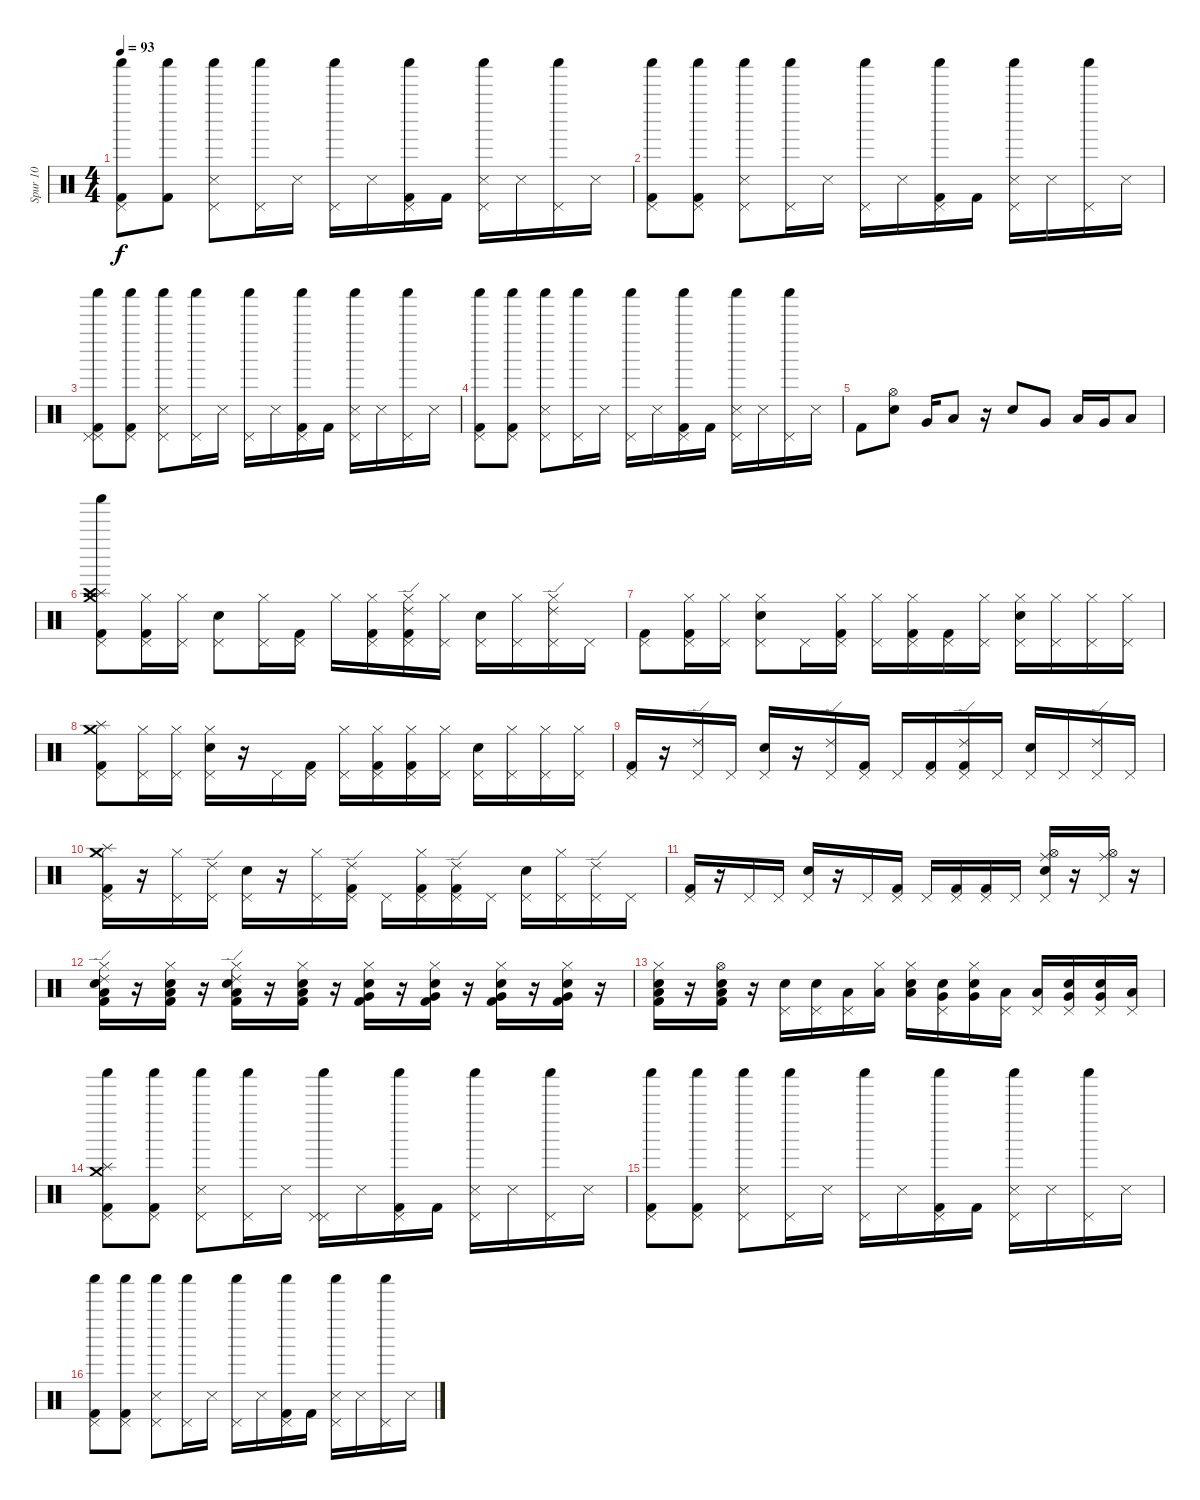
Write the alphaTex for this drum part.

\track ("Spur 10" "Spur 10") {instrument percussion}
\staff {score}
\articulation defaults
\ts (4 4)
\tempo 93
\clef neutral
\ks c
("Shaker (hit)" "Pedal Hi-Hat (hit)" "Kick (hit) 2").8{dy f} ("Shaker (hit)" "Kick (hit) 2").8 ("Shaker (hit)" "Pedal Hi-Hat (hit)" "Snare (side stick) 3").8 ("Shaker (hit)" "Pedal Hi-Hat (hit)").16 "Snare (side stick) 3".16 ("Shaker (hit)" "Pedal Hi-Hat (hit)").16 "Snare (side stick) 3".16 ("Shaker (hit)" "Pedal Hi-Hat (hit)" "Kick (hit) 2").16 "Kick (hit) 2".16 ("Shaker (hit)" "Pedal Hi-Hat (hit)" "Snare (side stick) 3").16 "Snare (side stick) 3".16 ("Shaker (hit)" "Pedal Hi-Hat (hit)").16 "Snare (side stick) 3".16 |
("Shaker (hit)" "Pedal Hi-Hat (hit)" "Kick (hit) 2").8 ("Shaker (hit)" "Pedal Hi-Hat (hit)" "Kick (hit) 2").8 ("Shaker (hit)" "Pedal Hi-Hat (hit)" "Snare (side stick) 3").8 ("Shaker (hit)" "Pedal Hi-Hat (hit)").16 "Snare (side stick) 3".16 ("Shaker (hit)" "Pedal Hi-Hat (hit)").16 "Snare (side stick) 3".16 ("Shaker (hit)" "Pedal Hi-Hat (hit)" "Kick (hit) 2").16 "Kick (hit) 2".16 ("Shaker (hit)" "Pedal Hi-Hat (hit)" "Snare (side stick) 3").16 "Snare (side stick) 3".16 ("Shaker (hit)" "Pedal Hi-Hat (hit)").16 "Snare (side stick) 3".16 |
("Shaker (hit)" "Pedal Hi-Hat (hit)" "Kick (hit) 2" "Pedal Hi-Hat (hit)").8 ("Shaker (hit)" "Pedal Hi-Hat (hit)" "Kick (hit) 2").8 ("Shaker (hit)" "Pedal Hi-Hat (hit)" "Snare (side stick) 3").8 ("Shaker (hit)" "Pedal Hi-Hat (hit)").16 "Snare (side stick) 3".16 ("Shaker (hit)" "Pedal Hi-Hat (hit)").16 "Snare (side stick) 3".16 ("Shaker (hit)" "Pedal Hi-Hat (hit)" "Kick (hit) 2").16 "Kick (hit) 2".16 ("Shaker (hit)" "Pedal Hi-Hat (hit)" "Snare (side stick) 3").16 "Snare (side stick) 3".16 ("Shaker (hit)" "Pedal Hi-Hat (hit)").16 "Snare (side stick) 3".16 |
("Shaker (hit)" "Pedal Hi-Hat (hit)" "Kick (hit) 2").8 ("Shaker (hit)" "Pedal Hi-Hat (hit)" "Kick (hit) 2").8 ("Shaker (hit)" "Pedal Hi-Hat (hit)" "Snare (side stick) 3").8 ("Shaker (hit)" "Pedal Hi-Hat (hit)").16 "Snare (side stick) 3".16 ("Shaker (hit)" "Pedal Hi-Hat (hit)").16 "Snare (side stick) 3".16 ("Shaker (hit)" "Pedal Hi-Hat (hit)" "Kick (hit) 2").16 "Kick (hit) 2".16 ("Shaker (hit)" "Pedal Hi-Hat (hit)" "Snare (side stick) 3").16 "Snare (side stick) 3".16 ("Shaker (hit)" "Pedal Hi-Hat (hit)").16 "Snare (side stick) 3".16 |
"Kick (hit) 2".8 ("Hi-Hat (open)" "Electric Snare (hit)").8 "Very Low Tom (hit)".16 "Low Tom (hit)".8 r.16 "Snare (hit) 2".8 "Very Low Tom (hit)".8 "Low Floor Tom (hit)".16 "Very Low Tom (hit)".16 "Low Tom (hit)".8 |
("Splash (hit)" "Crash high (hit)" "Pedal Hi-Hat (hit)" "Crash medium (hit)" "Kick (hit) 2" "Shaker (hit)").8 ("Hi-Hat (closed)" "Kick (hit) 2" "Pedal Hi-Hat (hit)").16 ("Hi-Hat (closed)" "Pedal Hi-Hat (hit)").16 ("Pedal Hi-Hat (hit)" "Electric Snare (hit)").8 ("Pedal Hi-Hat (hit)" "Hi-Hat (closed)").16 ("Pedal Hi-Hat (hit)" "Kick (hit) 2").16 "Hi-Hat (closed)".16 ("Hi-Hat (closed)" "Pedal Hi-Hat (hit)" "Kick (hit) 2").16 ("Hi-Hat (closed)" "Pedal Hi-Hat (hit)" "Kick (hit) 2" "Ride (edge) 2").16 ("Hi-Hat (closed)" "Pedal Hi-Hat (hit)").16 ("Pedal Hi-Hat (hit)" "Electric Snare (hit)").16 ("Hi-Hat (closed)" "Pedal Hi-Hat (hit)").16 ("Hi-Hat (closed)" "Pedal Hi-Hat (hit)" "Ride (edge) 2").16 "Pedal Hi-Hat (hit)".16 |
("Pedal Hi-Hat (hit)" "Kick (hit) 2").8 ("Hi-Hat (closed)" "Kick (hit) 2" "Pedal Hi-Hat (hit)").16 ("Hi-Hat (closed)" "Pedal Hi-Hat (hit)").16 ("Hi-Hat (closed)" "Pedal Hi-Hat (hit)" "Electric Snare (hit)").8 "Pedal Hi-Hat (hit)".16 ("Hi-Hat (closed)" "Pedal Hi-Hat (hit)" "Kick (hit) 2").16 ("Hi-Hat (closed)" "Pedal Hi-Hat (hit)").16 ("Hi-Hat (closed)" "Pedal Hi-Hat (hit)" "Kick (hit) 2").16 ("Kick (hit) 2" "Pedal Hi-Hat (hit)").16 ("Hi-Hat (closed)" "Pedal Hi-Hat (hit)").16 ("Hi-Hat (closed)" "Electric Snare (hit)" "Pedal Hi-Hat (hit)").16 ("Hi-Hat (closed)" "Pedal Hi-Hat (hit)").16 ("Hi-Hat (closed)" "Pedal Hi-Hat (hit)").16 ("Hi-Hat (closed)" "Pedal Hi-Hat (hit)").16 |
("Splash (hit)" "Crash medium (hit)" "Pedal Hi-Hat (hit)" "Kick (hit) 2").8 ("Hi-Hat (closed)" "Pedal Hi-Hat (hit)").16 ("Hi-Hat (closed)" "Pedal Hi-Hat (hit)").16 ("Hi-Hat (closed)" "Electric Snare (hit)" "Pedal Hi-Hat (hit)").16 r.16 "Pedal Hi-Hat (hit)".16 ("Pedal Hi-Hat (hit)" "Kick (hit) 2").16 ("Hi-Hat (closed)" "Pedal Hi-Hat (hit)").16 ("Hi-Hat (closed)" "Pedal Hi-Hat (hit)" "Kick (hit) 2").16 ("Hi-Hat (closed)" "Kick (hit) 2" "Pedal Hi-Hat (hit)").16 ("Hi-Hat (closed)" "Pedal Hi-Hat (hit)").16 ("Electric Snare (hit)" "Pedal Hi-Hat (hit)").16 ("Hi-Hat (closed)" "Pedal Hi-Hat (hit)").16 ("Hi-Hat (closed)" "Pedal Hi-Hat (hit)").16 ("Hi-Hat (closed)" "Pedal Hi-Hat (hit)").16 |
("Kick (hit) 2" "Pedal Hi-Hat (hit)").16 r.16 ("Ride (edge) 2" "Pedal Hi-Hat (hit)").16 "Pedal Hi-Hat (hit)".16 ("Electric Snare (hit)" "Pedal Hi-Hat (hit)").16 r.16 ("Ride (edge) 2" "Pedal Hi-Hat (hit)").16 ("Pedal Hi-Hat (hit)" "Kick (hit) 2").16 "Pedal Hi-Hat (hit)".16 ("Pedal Hi-Hat (hit)" "Kick (hit) 2").16 ("Ride (edge) 2" "Kick (hit) 2" "Pedal Hi-Hat (hit)").16 "Pedal Hi-Hat (hit)".16 ("Electric Snare (hit)" "Pedal Hi-Hat (hit)").16 "Pedal Hi-Hat (hit)".16 ("Ride (edge) 2" "Pedal Hi-Hat (hit)").16 "Pedal Hi-Hat (hit)".16 |
("Splash (hit)" "Kick (hit) 2" "Crash medium (hit)" "Pedal Hi-Hat (hit)").16 r.16 ("Hi-Hat (closed)" "Pedal Hi-Hat (hit)").16 ("Ride (edge) 2" "Pedal Hi-Hat (hit)").16 ("Electric Snare (hit)" "Pedal Hi-Hat (hit)").16 r.16 ("Hi-Hat (closed)" "Pedal Hi-Hat (hit)").16 ("Ride (edge) 2" "Pedal Hi-Hat (hit)" "Kick (hit) 2").16{volume 12} "Pedal Hi-Hat (hit)".16 ("Hi-Hat (closed)" "Pedal Hi-Hat (hit)" "Kick (hit) 2").16 ("Ride (edge) 2" "Kick (hit) 2" "Pedal Hi-Hat (hit)").16 "Pedal Hi-Hat (hit)".16 ("Electric Snare (hit)" "Pedal Hi-Hat (hit)").16 ("Hi-Hat (closed)" "Pedal Hi-Hat (hit)").16 ("Ride (edge) 2" "Pedal Hi-Hat (hit)").16 "Pedal Hi-Hat (hit)".16 |
("Kick (hit) 2" "Pedal Hi-Hat (hit)").16 r.16 "Pedal Hi-Hat (hit)".16 "Pedal Hi-Hat (hit)".16 ("Electric Snare (hit)" "Pedal Hi-Hat (hit)").16 r.16 "Pedal Hi-Hat (hit)".16 ("Pedal Hi-Hat (hit)" "Kick (hit) 2").16 "Pedal Hi-Hat (hit)".16 ("Pedal Hi-Hat (hit)" "Kick (hit) 2").16 ("Kick (hit) 2" "Pedal Hi-Hat (hit)").16 "Pedal Hi-Hat (hit)".16 ("Hi-Hat (open)" "Ride (middle)" "Electric Snare (hit)" "Pedal Hi-Hat (hit)").16 r.16 ("Hi-Hat (open)" "Ride (middle)" "Pedal Hi-Hat (hit)").16 r.16 |
("Ride (edge) 2" "Hi-Hat (closed)" "Low Floor Tom (hit)" "Kick (hit) 2" "Electric Snare (hit)").16 r.16 ("Hi-Hat (closed)" "Low Floor Tom (hit)" "Kick (hit) 2" "Electric Snare (hit)").16{volume 12} r.16 ("Ride (edge) 2" "Hi-Hat (closed)" "Low Floor Tom (hit)" "Kick (hit) 2" "Electric Snare (hit)").16 r.16 ("Hi-Hat (closed)" "Kick (hit) 2" "Low Floor Tom (hit)" "Electric Snare (hit)").16 r.16 ("Hi-Hat (closed)" "Very Low Tom (hit)" "Kick (hit) 2" "Electric Snare (hit)").16 r.16 ("Hi-Hat (closed)" "Very Low Tom (hit)" "Kick (hit) 2" "Electric Snare (hit)").16 r.16 ("Hi-Hat (closed)" "Very Low Tom (hit)" "Kick (hit) 2" "Electric Snare (hit)").16 r.16 ("Hi-Hat (closed)" "Very Low Tom (hit)" "Kick (hit) 2" "Electric Snare (hit)").16 r.16 |
("Hi-Hat (closed)" "Low Tom (hit)" "Kick (hit) 2" "Electric Snare (hit)").16 r.16 ("Hi-Hat (open)" "Kick (hit) 2" "Low Tom (hit)" "Electric Snare (hit)").16 r.16 ("Pedal Hi-Hat (hit)" "Snare (hit) 2").16 ("Pedal Hi-Hat (hit)" "Electric Snare (hit)").16 ("Pedal Hi-Hat (hit)" "Low Tom (hit)").16 ("Hi-Hat (closed)" "Low Floor Tom (hit)").16 ("Low Tom (hit)" "Hi-Hat (closed)" "Snare (hit) 2").16 ("Electric Snare (hit)" "Pedal Hi-Hat (hit)" "Very Low Tom (hit)").16 ("Snare (hit) 2" "Hi-Hat (closed)" "Very Low Tom (hit)").16 ("Pedal Hi-Hat (hit)" "Low Floor Tom (hit)").16 ("Pedal Hi-Hat (hit)" "Low Tom (hit)").16 ("Electric Snare (hit)" "Pedal Hi-Hat (hit)" "Very Low Tom (hit)").16 ("Snare (hit) 2" "Pedal Hi-Hat (hit)" "Very Low Tom (hit)").16 ("Pedal Hi-Hat (hit)" "Low Floor Tom (hit)").16 |
("Crash medium (hit)" "Shaker (hit)" "Kick (hit) 2" "Pedal Hi-Hat (hit)" "Splash (hit)").8 ("Shaker (hit)" "Kick (hit) 2" "Pedal Hi-Hat (hit)").8 ("Shaker (hit)" "Pedal Hi-Hat (hit)" "Snare (side stick) 3").8 ("Shaker (hit)" "Pedal Hi-Hat (hit)").16 "Snare (side stick) 3".16 ("Shaker (hit)" "Pedal Hi-Hat (hit)" "Pedal Hi-Hat (hit)").16 "Snare (side stick) 3".16 ("Shaker (hit)" "Pedal Hi-Hat (hit)" "Kick (hit) 2").16 "Kick (hit) 2".16 ("Shaker (hit)" "Pedal Hi-Hat (hit)" "Snare (side stick) 3").16 "Snare (side stick) 3".16 ("Shaker (hit)" "Pedal Hi-Hat (hit)").16 "Snare (side stick) 3".16 |
("Shaker (hit)" "Pedal Hi-Hat (hit)" "Kick (hit) 2").8 ("Shaker (hit)" "Pedal Hi-Hat (hit)" "Kick (hit) 2").8 ("Shaker (hit)" "Pedal Hi-Hat (hit)" "Snare (side stick) 3").8 ("Shaker (hit)" "Pedal Hi-Hat (hit)").16 "Snare (side stick) 3".16 ("Shaker (hit)" "Pedal Hi-Hat (hit)").16 "Snare (side stick) 3".16 ("Shaker (hit)" "Pedal Hi-Hat (hit)" "Kick (hit) 2").16 "Kick (hit) 2".16 ("Shaker (hit)" "Pedal Hi-Hat (hit)" "Snare (side stick) 3").16 "Snare (side stick) 3".16 ("Shaker (hit)" "Pedal Hi-Hat (hit)").16 "Snare (side stick) 3".16 |
("Shaker (hit)" "Pedal Hi-Hat (hit)" "Kick (hit) 2").8 ("Shaker (hit)" "Pedal Hi-Hat (hit)" "Kick (hit) 2").8 ("Snare (side stick) 3" "Shaker (hit)" "Pedal Hi-Hat (hit)").8 ("Shaker (hit)" "Pedal Hi-Hat (hit)").16 "Snare (side stick) 3".16 ("Shaker (hit)" "Pedal Hi-Hat (hit)").16 "Snare (side stick) 3".16 ("Shaker (hit)" "Pedal Hi-Hat (hit)" "Kick (hit) 2").16 "Kick (hit) 2".16 ("Shaker (hit)" "Pedal Hi-Hat (hit)" "Snare (side stick) 3").16 "Snare (side stick) 3".16 ("Shaker (hit)" "Pedal Hi-Hat (hit)").16 "Snare (side stick) 3".16
